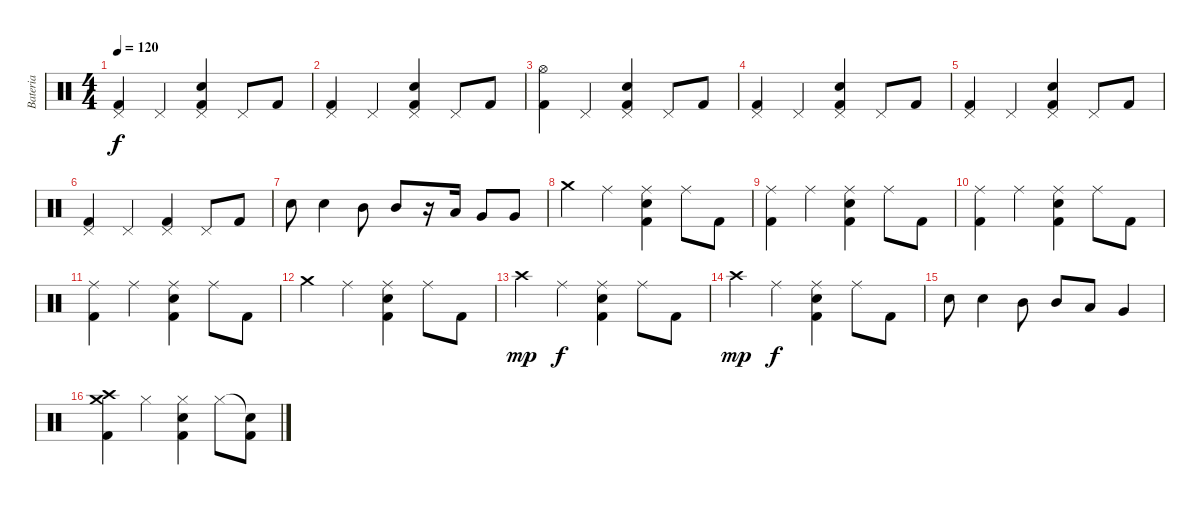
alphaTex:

\track ("Bateria" "Bateria") {instrument percussion}
\staff {score}
\articulation defaults
\ts (4 4)
\tempo 120
\clef neutral
\ks c
("Pedal Hi-Hat (hit)" "Kick (hit) 2").4{dy f} "Pedal Hi-Hat (hit)".4 ("Pedal Hi-Hat (hit)" "Electric Snare (hit)" "Kick (hit) 2").4 "Pedal Hi-Hat (hit)".8 "Kick (hit) 2".8 |
("Pedal Hi-Hat (hit)" "Kick (hit) 2").4 "Pedal Hi-Hat (hit)".4 ("Pedal Hi-Hat (hit)" "Electric Snare (hit)" "Kick (hit) 2").4 "Pedal Hi-Hat (hit)".8 "Kick (hit) 2".8 |
("Hi-Hat (open)" "Kick (hit) 2").4 "Pedal Hi-Hat (hit)".4 ("Pedal Hi-Hat (hit)" "Electric Snare (hit)" "Kick (hit) 2").4 "Pedal Hi-Hat (hit)".8 "Kick (hit) 2".8 |
("Pedal Hi-Hat (hit)" "Kick (hit) 2").4 "Pedal Hi-Hat (hit)".4 ("Pedal Hi-Hat (hit)" "Electric Snare (hit)" "Kick (hit) 2").4 "Pedal Hi-Hat (hit)".8 "Kick (hit) 2".8 |
("Pedal Hi-Hat (hit)" "Kick (hit) 2").4 "Pedal Hi-Hat (hit)".4 ("Pedal Hi-Hat (hit)" "Electric Snare (hit)" "Kick (hit) 2").4 "Pedal Hi-Hat (hit)".8 "Kick (hit) 2".8 |
("Pedal Hi-Hat (hit)" "Kick (hit) 2").4 "Pedal Hi-Hat (hit)".4 ("Pedal Hi-Hat (hit)" "Kick (hit) 2").4 "Pedal Hi-Hat (hit)".8 "Kick (hit) 2".8 |
"Electric Snare (hit)".8 "Electric Snare (hit)".4 "Mid Tom (hit)".8 "Mid Tom (hit)".8 r.16 "Low Tom (hit)".16 "Very Low Tom (hit)".8 "Very Low Tom (hit)".8 |
"Crash medium (hit)".4 "Ride (middle)".4 ("Ride (middle)" "Electric Snare (hit)" "Kick (hit) 2").4 "Ride (middle)".8 "Kick (hit) 2".8 |
("Ride (middle)" "Kick (hit) 2").4 "Ride (middle)".4 ("Ride (middle)" "Electric Snare (hit)" "Kick (hit) 2").4 "Ride (middle)".8 "Kick (hit) 2".8 |
("Ride (middle)" "Kick (hit) 2").4 "Ride (middle)".4 ("Ride (middle)" "Electric Snare (hit)" "Kick (hit) 2").4 "Ride (middle)".8 "Kick (hit) 2".8 |
("Ride (middle)" "Kick (hit) 2").4 "Ride (middle)".4 ("Ride (middle)" "Electric Snare (hit)" "Kick (hit) 2").4 "Ride (middle)".8 "Kick (hit) 2".8 |
"Crash medium (hit)".4 "Ride (middle)".4 ("Ride (middle)" "Electric Snare (hit)" "Kick (hit) 2").4 "Ride (middle)".8 "Kick (hit) 2".8 |
"Crash high (hit)".4{dy mp} "Ride (middle)".4{dy f} ("Ride (middle)" "Electric Snare (hit)" "Kick (hit) 2").4 "Ride (middle)".8 "Kick (hit) 2".8 |
"Crash high (hit)".4{dy mp} "Ride (middle)".4{dy f} ("Ride (middle)" "Electric Snare (hit)" "Kick (hit) 2").4 "Ride (middle)".8 "Kick (hit) 2".8 |
"Electric Snare (hit)".8 "Electric Snare (hit)".4 "Mid Tom (hit)".8 "Mid Tom (hit)".8 "Low Tom (hit)".8 "Very Low Tom (hit)".4 |
("Crash medium (hit)" "Crash high (hit)" "Kick (hit) 2").4 "Hi-Hat (closed)".4 ("Hi-Hat (closed)" "Electric Snare (hit)" "Kick (hit) 2").4 "Hi-Hat (closed)".8 ("Snare (hit)"{t} "Kick (hit) 2").8
